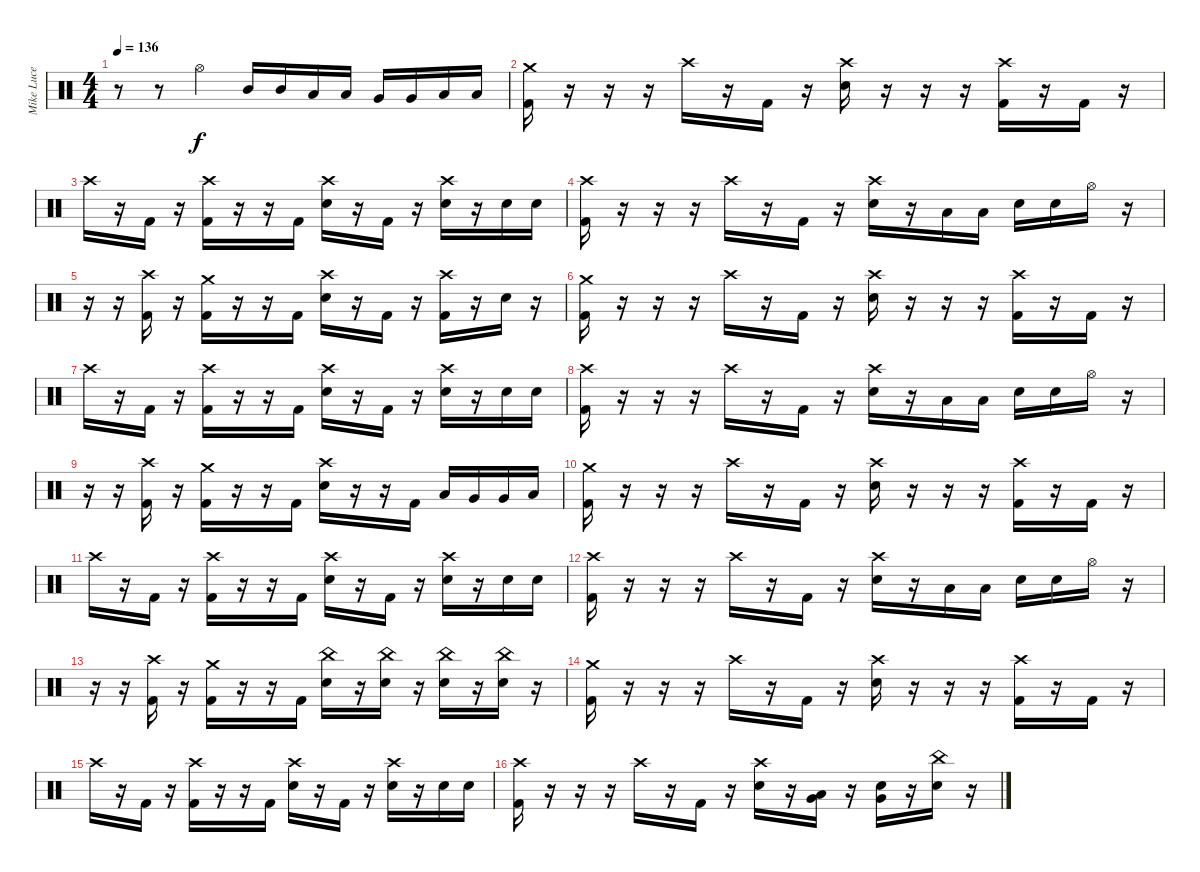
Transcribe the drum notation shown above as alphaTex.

\track ("Mike Luce" "Mike Luce") {instrument percussion}
\staff {score}
\articulation defaults
\ts (4 4)
\tempo 136
\clef neutral
\ks c
r.8{dy f} r.8 "Hi-Hat (open)".4 "Mid Tom (hit)".16 "Mid Tom (hit)".16 "Low Tom (hit)".16 "Low Tom (hit)".16 "Very Low Tom (hit)".16 "Very Low Tom (hit)".16 "Low Floor Tom (hit)".16 "Low Floor Tom (hit)".16 |
("Crash medium (hit)" "Kick (hit) 2").16 r.16 r.16 r.16 "Crash high (hit)".16 r.16 "Kick (hit) 2".16 r.16 ("Crash high (hit)" "Electric Snare (hit)").16 r.16 r.16 r.16 ("Crash high (hit)" "Kick (hit) 2").16 r.16 "Kick (hit) 2".16 r.16 |
"Crash high (hit)".16 r.16 "Kick (hit) 2".16 r.16 ("Crash high (hit)" "Kick (hit) 2").16 r.16 r.16 "Kick (hit) 2".16 ("Crash high (hit)" "Electric Snare (hit)").16 r.16 "Kick (hit) 2".16 r.16 ("Crash high (hit)" "Electric Snare (hit)").16 r.16 "Electric Snare (hit)".16 "Electric Snare (hit)".16 |
("Crash high (hit)" "Kick (hit) 2").16 r.16 r.16 r.16 "Crash high (hit)".16 r.16 "Kick (hit) 2".16 r.16 ("Crash high (hit)" "Electric Snare (hit)").16 r.16 "Low Tom (hit)".16 "Low Tom (hit)".16 "Electric Snare (hit)".16 "Electric Snare (hit)".16 "Hi-Hat (open)".16 r.16 |
r.16 r.16 ("Crash high (hit)" "Kick (hit) 2").16 r.16 ("Crash medium (hit)" "Kick (hit) 2").16 r.16 r.16 "Kick (hit) 2".16 ("Crash high (hit)" "Electric Snare (hit)").16 r.16 "Kick (hit) 2".16 r.16 ("Crash high (hit)" "Kick (hit) 2").16 r.16 "Electric Snare (hit)".16 r.16 |
("Crash medium (hit)" "Kick (hit) 2").16 r.16 r.16 r.16 "Crash high (hit)".16 r.16 "Kick (hit) 2".16 r.16 ("Crash high (hit)" "Electric Snare (hit)").16 r.16 r.16 r.16 ("Crash high (hit)" "Kick (hit) 2").16 r.16 "Kick (hit) 2".16 r.16 |
"Crash high (hit)".16 r.16 "Kick (hit) 2".16 r.16 ("Crash high (hit)" "Kick (hit) 2").16 r.16 r.16 "Kick (hit) 2".16 ("Crash high (hit)" "Electric Snare (hit)").16 r.16 "Kick (hit) 2".16 r.16 ("Crash high (hit)" "Electric Snare (hit)").16 r.16 "Electric Snare (hit)".16 "Electric Snare (hit)".16 |
("Crash high (hit)" "Kick (hit) 2").16 r.16 r.16 r.16 "Crash high (hit)".16 r.16 "Kick (hit) 2".16 r.16 ("Crash high (hit)" "Electric Snare (hit)").16 r.16 "Low Tom (hit)".16 "Low Tom (hit)".16 "Electric Snare (hit)".16 "Electric Snare (hit)".16 "Hi-Hat (open)".16 r.16 |
r.16 r.16 ("Crash high (hit)" "Kick (hit) 2").16 r.16 ("Crash medium (hit)" "Kick (hit) 2").16 r.16 r.16 "Kick (hit) 2".16 ("Crash high (hit)" "Electric Snare (hit)").16 r.16 r.16 "Kick (hit) 2".16 "Low Tom (hit)".16 "Very Low Tom (hit)".16 "Very Low Tom (hit)".16 "Low Floor Tom (hit)".16 |
("Crash medium (hit)" "Kick (hit) 2").16 r.16 r.16 r.16 "Crash high (hit)".16 r.16 "Kick (hit) 2".16 r.16 ("Crash high (hit)" "Electric Snare (hit)").16 r.16 r.16 r.16 ("Crash high (hit)" "Kick (hit) 2").16 r.16 "Kick (hit) 2".16 r.16 |
"Crash high (hit)".16 r.16 "Kick (hit) 2".16 r.16 ("Crash high (hit)" "Kick (hit) 2").16 r.16 r.16 "Kick (hit) 2".16 ("Crash high (hit)" "Electric Snare (hit)").16 r.16 "Kick (hit) 2".16 r.16 ("Crash high (hit)" "Electric Snare (hit)").16 r.16 "Electric Snare (hit)".16 "Electric Snare (hit)".16 |
("Crash high (hit)" "Kick (hit) 2").16 r.16 r.16 r.16 "Crash high (hit)".16 r.16 "Kick (hit) 2".16 r.16 ("Crash high (hit)" "Electric Snare (hit)").16 r.16 "Low Tom (hit)".16 "Low Tom (hit)".16 "Electric Snare (hit)".16 "Electric Snare (hit)".16 "Hi-Hat (open)".16 r.16 |
r.16 r.16 ("Crash high (hit)" "Kick (hit) 2").16 r.16 ("Crash medium (hit)" "Kick (hit) 2").16 r.16 r.16 "Kick (hit) 2".16 ("China (hit)" "Electric Snare (hit)").16 r.16 ("China (hit)" "Electric Snare (hit)").16 r.16 ("China (hit)" "Electric Snare (hit)").16 r.16 ("China (hit)" "Electric Snare (hit)").16 r.16 |
("Crash medium (hit)" "Kick (hit) 2").16 r.16 r.16 r.16 "Crash high (hit)".16 r.16 "Kick (hit) 2".16 r.16 ("Crash high (hit)" "Electric Snare (hit)").16 r.16 r.16 r.16 ("Crash high (hit)" "Kick (hit) 2").16 r.16 "Kick (hit) 2".16 r.16 |
"Crash high (hit)".16 r.16 "Kick (hit) 2".16 r.16 ("Crash high (hit)" "Kick (hit) 2").16 r.16 r.16 "Kick (hit) 2".16 ("Crash high (hit)" "Electric Snare (hit)").16 r.16 "Kick (hit) 2".16 r.16 ("Crash high (hit)" "Electric Snare (hit)").16 r.16 "Electric Snare (hit)".16 "Electric Snare (hit)".16 |
("Crash high (hit)" "Kick (hit) 2").16 r.16 r.16 r.16 "Crash high (hit)".16 r.16 "Kick (hit) 2".16 r.16 ("Crash high (hit)" "Electric Snare (hit)").16 r.16 ("Low Tom (hit)" "Very Low Tom (hit)").16 r.16 ("Electric Snare (hit)" "Very Low Tom (hit)").16 r.16 ("China (hit)" "Electric Snare (hit)").16 r.16
